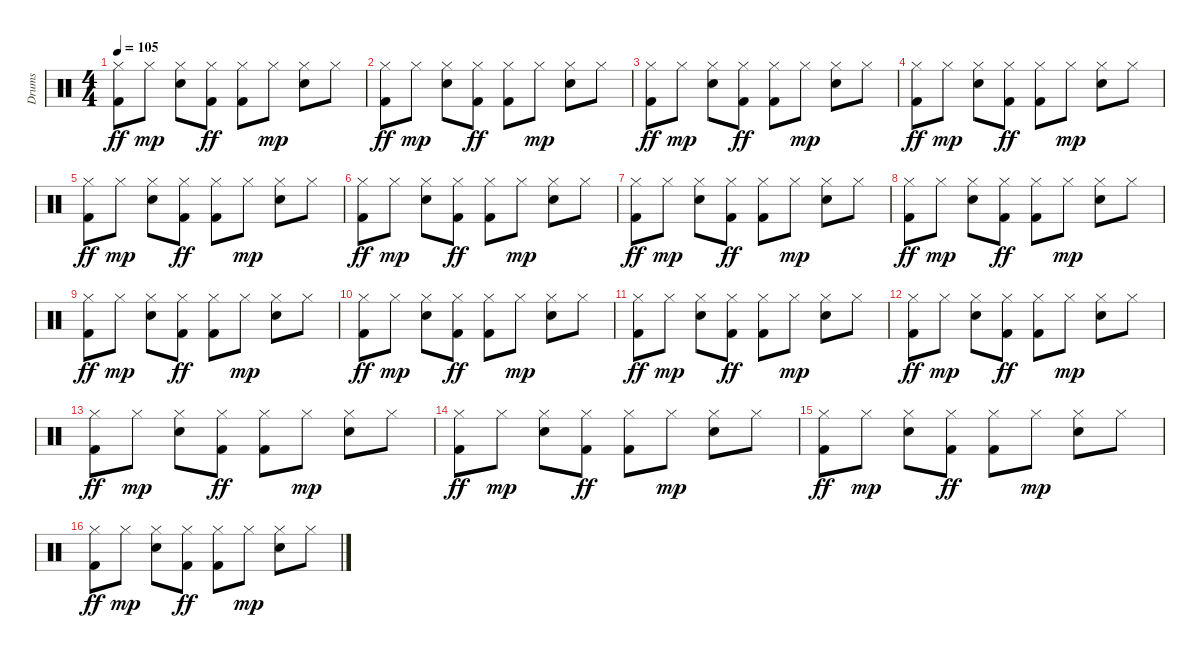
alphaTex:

\track ("Drums" "Drums") {instrument percussion}
\staff {score}
\articulation defaults
\ts (4 4)
\tempo 105
\clef neutral
\ks c
("Hi-Hat (closed)" "Kick (hit) 2").8{dy ff} "Hi-Hat (closed)".8{dy mp} ("Hi-Hat (closed)" "Electric Snare (hit)").8 ("Hi-Hat (closed)" "Kick (hit) 2").8{dy ff} ("Hi-Hat (closed)" "Kick (hit) 2").8 "Hi-Hat (closed)".8{dy mp} ("Hi-Hat (closed)" "Electric Snare (hit)").8 "Hi-Hat (closed)".8 |
("Hi-Hat (closed)" "Kick (hit) 2").8{dy ff} "Hi-Hat (closed)".8{dy mp} ("Hi-Hat (closed)" "Electric Snare (hit)").8 ("Hi-Hat (closed)" "Kick (hit) 2").8{dy ff} ("Hi-Hat (closed)" "Kick (hit) 2").8 "Hi-Hat (closed)".8{dy mp} ("Hi-Hat (closed)" "Electric Snare (hit)").8 "Hi-Hat (closed)".8 |
("Hi-Hat (closed)" "Kick (hit) 2").8{dy ff} "Hi-Hat (closed)".8{dy mp} ("Hi-Hat (closed)" "Electric Snare (hit)").8 ("Hi-Hat (closed)" "Kick (hit) 2").8{dy ff} ("Hi-Hat (closed)" "Kick (hit) 2").8 "Hi-Hat (closed)".8{dy mp} ("Hi-Hat (closed)" "Electric Snare (hit)").8 "Hi-Hat (closed)".8 |
("Hi-Hat (closed)" "Kick (hit) 2").8{dy ff} "Hi-Hat (closed)".8{dy mp} ("Hi-Hat (closed)" "Electric Snare (hit)").8 ("Hi-Hat (closed)" "Kick (hit) 2").8{dy ff} ("Hi-Hat (closed)" "Kick (hit) 2").8 "Hi-Hat (closed)".8{dy mp} ("Hi-Hat (closed)" "Electric Snare (hit)").8 "Hi-Hat (closed)".8 |
("Hi-Hat (closed)" "Kick (hit) 2").8{dy ff} "Hi-Hat (closed)".8{dy mp} ("Hi-Hat (closed)" "Electric Snare (hit)").8 ("Hi-Hat (closed)" "Kick (hit) 2").8{dy ff} ("Hi-Hat (closed)" "Kick (hit) 2").8 "Hi-Hat (closed)".8{dy mp} ("Hi-Hat (closed)" "Electric Snare (hit)").8 "Hi-Hat (closed)".8 |
("Hi-Hat (closed)" "Kick (hit) 2").8{dy ff} "Hi-Hat (closed)".8{dy mp} ("Hi-Hat (closed)" "Electric Snare (hit)").8 ("Hi-Hat (closed)" "Kick (hit) 2").8{dy ff} ("Hi-Hat (closed)" "Kick (hit) 2").8 "Hi-Hat (closed)".8{dy mp} ("Hi-Hat (closed)" "Electric Snare (hit)").8 "Hi-Hat (closed)".8 |
("Hi-Hat (closed)" "Kick (hit) 2").8{dy ff} "Hi-Hat (closed)".8{dy mp} ("Hi-Hat (closed)" "Electric Snare (hit)").8 ("Hi-Hat (closed)" "Kick (hit) 2").8{dy ff} ("Hi-Hat (closed)" "Kick (hit) 2").8 "Hi-Hat (closed)".8{dy mp} ("Hi-Hat (closed)" "Electric Snare (hit)").8 "Hi-Hat (closed)".8 |
("Hi-Hat (closed)" "Kick (hit) 2").8{dy ff} "Hi-Hat (closed)".8{dy mp} ("Hi-Hat (closed)" "Electric Snare (hit)").8 ("Hi-Hat (closed)" "Kick (hit) 2").8{dy ff} ("Hi-Hat (closed)" "Kick (hit) 2").8 "Hi-Hat (closed)".8{dy mp} ("Hi-Hat (closed)" "Electric Snare (hit)").8 "Hi-Hat (closed)".8 |
("Hi-Hat (closed)" "Kick (hit) 2").8{dy ff} "Hi-Hat (closed)".8{dy mp} ("Hi-Hat (closed)" "Electric Snare (hit)").8 ("Hi-Hat (closed)" "Kick (hit) 2").8{dy ff} ("Hi-Hat (closed)" "Kick (hit) 2").8 "Hi-Hat (closed)".8{dy mp} ("Hi-Hat (closed)" "Electric Snare (hit)").8 "Hi-Hat (closed)".8 |
("Hi-Hat (closed)" "Kick (hit) 2").8{dy ff} "Hi-Hat (closed)".8{dy mp} ("Hi-Hat (closed)" "Electric Snare (hit)").8 ("Hi-Hat (closed)" "Kick (hit) 2").8{dy ff} ("Hi-Hat (closed)" "Kick (hit) 2").8 "Hi-Hat (closed)".8{dy mp} ("Hi-Hat (closed)" "Electric Snare (hit)").8 "Hi-Hat (closed)".8 |
("Hi-Hat (closed)" "Kick (hit) 2").8{dy ff} "Hi-Hat (closed)".8{dy mp} ("Hi-Hat (closed)" "Electric Snare (hit)").8 ("Hi-Hat (closed)" "Kick (hit) 2").8{dy ff} ("Hi-Hat (closed)" "Kick (hit) 2").8 "Hi-Hat (closed)".8{dy mp} ("Hi-Hat (closed)" "Electric Snare (hit)").8 "Hi-Hat (closed)".8 |
("Hi-Hat (closed)" "Kick (hit) 2").8{dy ff} "Hi-Hat (closed)".8{dy mp} ("Hi-Hat (closed)" "Electric Snare (hit)").8 ("Hi-Hat (closed)" "Kick (hit) 2").8{dy ff} ("Hi-Hat (closed)" "Kick (hit) 2").8 "Hi-Hat (closed)".8{dy mp} ("Hi-Hat (closed)" "Electric Snare (hit)").8 "Hi-Hat (closed)".8 |
("Hi-Hat (closed)" "Kick (hit) 2").8{dy ff} "Hi-Hat (closed)".8{dy mp} ("Hi-Hat (closed)" "Electric Snare (hit)").8 ("Hi-Hat (closed)" "Kick (hit) 2").8{dy ff} ("Hi-Hat (closed)" "Kick (hit) 2").8 "Hi-Hat (closed)".8{dy mp} ("Hi-Hat (closed)" "Electric Snare (hit)").8 "Hi-Hat (closed)".8 |
("Hi-Hat (closed)" "Kick (hit) 2").8{dy ff} "Hi-Hat (closed)".8{dy mp} ("Hi-Hat (closed)" "Electric Snare (hit)").8 ("Hi-Hat (closed)" "Kick (hit) 2").8{dy ff} ("Hi-Hat (closed)" "Kick (hit) 2").8 "Hi-Hat (closed)".8{dy mp} ("Hi-Hat (closed)" "Electric Snare (hit)").8 "Hi-Hat (closed)".8 |
("Hi-Hat (closed)" "Kick (hit) 2").8{dy ff} "Hi-Hat (closed)".8{dy mp} ("Hi-Hat (closed)" "Electric Snare (hit)").8 ("Hi-Hat (closed)" "Kick (hit) 2").8{dy ff} ("Hi-Hat (closed)" "Kick (hit) 2").8 "Hi-Hat (closed)".8{dy mp} ("Hi-Hat (closed)" "Electric Snare (hit)").8 "Hi-Hat (closed)".8 |
("Hi-Hat (closed)" "Kick (hit) 2").8{dy ff} "Hi-Hat (closed)".8{dy mp} ("Hi-Hat (closed)" "Electric Snare (hit)").8 ("Hi-Hat (closed)" "Kick (hit) 2").8{dy ff} ("Hi-Hat (closed)" "Kick (hit) 2").8 "Hi-Hat (closed)".8{dy mp} ("Hi-Hat (closed)" "Electric Snare (hit)").8 "Hi-Hat (closed)".8
